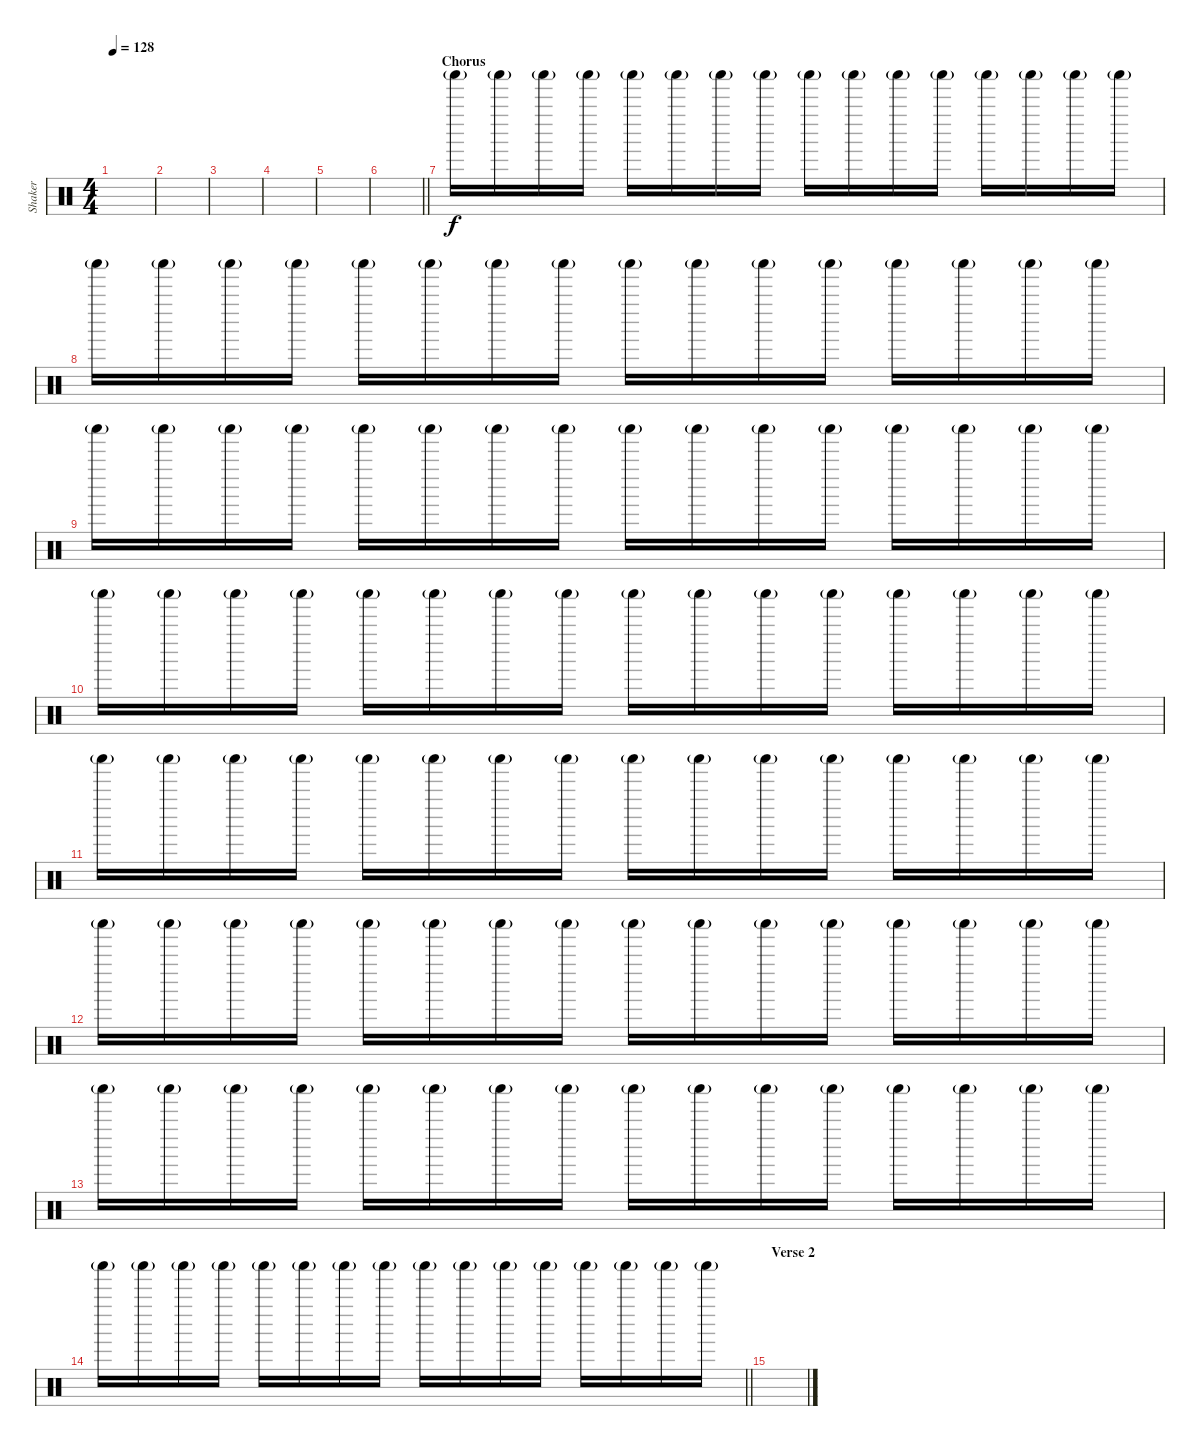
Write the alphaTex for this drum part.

\track ("Shaker" "Shaker") {instrument percussion}
\staff {score}
\articulation defaults
\ts (4 4)
\tempo 128
\clef neutral
\ks c
|
|
|
|
|
\barLineRight lightlight
|
\section ("" "Chorus")
"Shaker (hit)"{g}.16 "Shaker (hit)"{g}.16 "Shaker (hit)"{g}.16 "Shaker (hit)"{g}.16 "Shaker (hit)"{g}.16 "Shaker (hit)"{g}.16 "Shaker (hit)"{g}.16 "Shaker (hit)"{g}.16 "Shaker (hit)"{g}.16 "Shaker (hit)"{g}.16 "Shaker (hit)"{g}.16 "Shaker (hit)"{g}.16 "Shaker (hit)"{g}.16 "Shaker (hit)"{g}.16 "Shaker (hit)"{g}.16 "Shaker (hit)"{g}.16 |
"Shaker (hit)"{g}.16 "Shaker (hit)"{g}.16 "Shaker (hit)"{g}.16 "Shaker (hit)"{g}.16 "Shaker (hit)"{g}.16 "Shaker (hit)"{g}.16 "Shaker (hit)"{g}.16 "Shaker (hit)"{g}.16 "Shaker (hit)"{g}.16 "Shaker (hit)"{g}.16 "Shaker (hit)"{g}.16 "Shaker (hit)"{g}.16 "Shaker (hit)"{g}.16 "Shaker (hit)"{g}.16 "Shaker (hit)"{g}.16 "Shaker (hit)"{g}.16 |
"Shaker (hit)"{g}.16 "Shaker (hit)"{g}.16 "Shaker (hit)"{g}.16 "Shaker (hit)"{g}.16 "Shaker (hit)"{g}.16 "Shaker (hit)"{g}.16 "Shaker (hit)"{g}.16 "Shaker (hit)"{g}.16 "Shaker (hit)"{g}.16 "Shaker (hit)"{g}.16 "Shaker (hit)"{g}.16 "Shaker (hit)"{g}.16 "Shaker (hit)"{g}.16 "Shaker (hit)"{g}.16 "Shaker (hit)"{g}.16 "Shaker (hit)"{g}.16 |
"Shaker (hit)"{g}.16 "Shaker (hit)"{g}.16 "Shaker (hit)"{g}.16 "Shaker (hit)"{g}.16 "Shaker (hit)"{g}.16 "Shaker (hit)"{g}.16 "Shaker (hit)"{g}.16 "Shaker (hit)"{g}.16 "Shaker (hit)"{g}.16 "Shaker (hit)"{g}.16 "Shaker (hit)"{g}.16 "Shaker (hit)"{g}.16 "Shaker (hit)"{g}.16 "Shaker (hit)"{g}.16 "Shaker (hit)"{g}.16 "Shaker (hit)"{g}.16 |
"Shaker (hit)"{g}.16 "Shaker (hit)"{g}.16 "Shaker (hit)"{g}.16 "Shaker (hit)"{g}.16 "Shaker (hit)"{g}.16 "Shaker (hit)"{g}.16 "Shaker (hit)"{g}.16 "Shaker (hit)"{g}.16 "Shaker (hit)"{g}.16 "Shaker (hit)"{g}.16 "Shaker (hit)"{g}.16 "Shaker (hit)"{g}.16 "Shaker (hit)"{g}.16 "Shaker (hit)"{g}.16 "Shaker (hit)"{g}.16 "Shaker (hit)"{g}.16 |
"Shaker (hit)"{g}.16 "Shaker (hit)"{g}.16 "Shaker (hit)"{g}.16 "Shaker (hit)"{g}.16 "Shaker (hit)"{g}.16 "Shaker (hit)"{g}.16 "Shaker (hit)"{g}.16 "Shaker (hit)"{g}.16 "Shaker (hit)"{g}.16 "Shaker (hit)"{g}.16 "Shaker (hit)"{g}.16 "Shaker (hit)"{g}.16 "Shaker (hit)"{g}.16 "Shaker (hit)"{g}.16 "Shaker (hit)"{g}.16 "Shaker (hit)"{g}.16 |
"Shaker (hit)"{g}.16 "Shaker (hit)"{g}.16 "Shaker (hit)"{g}.16 "Shaker (hit)"{g}.16 "Shaker (hit)"{g}.16 "Shaker (hit)"{g}.16 "Shaker (hit)"{g}.16 "Shaker (hit)"{g}.16 "Shaker (hit)"{g}.16 "Shaker (hit)"{g}.16 "Shaker (hit)"{g}.16 "Shaker (hit)"{g}.16 "Shaker (hit)"{g}.16 "Shaker (hit)"{g}.16 "Shaker (hit)"{g}.16 "Shaker (hit)"{g}.16 |
\barLineRight lightlight "Shaker (hit)"{g}.16 "Shaker (hit)"{g}.16 "Shaker (hit)"{g}.16 "Shaker (hit)"{g}.16 "Shaker (hit)"{g}.16 "Shaker (hit)"{g}.16 "Shaker (hit)"{g}.16 "Shaker (hit)"{g}.16 "Shaker (hit)"{g}.16 "Shaker (hit)"{g}.16 "Shaker (hit)"{g}.16 "Shaker (hit)"{g}.16 "Shaker (hit)"{g}.16 "Shaker (hit)"{g}.16 "Shaker (hit)"{g}.16 "Shaker (hit)"{g}.16
|
\section ("" "Verse 2")
